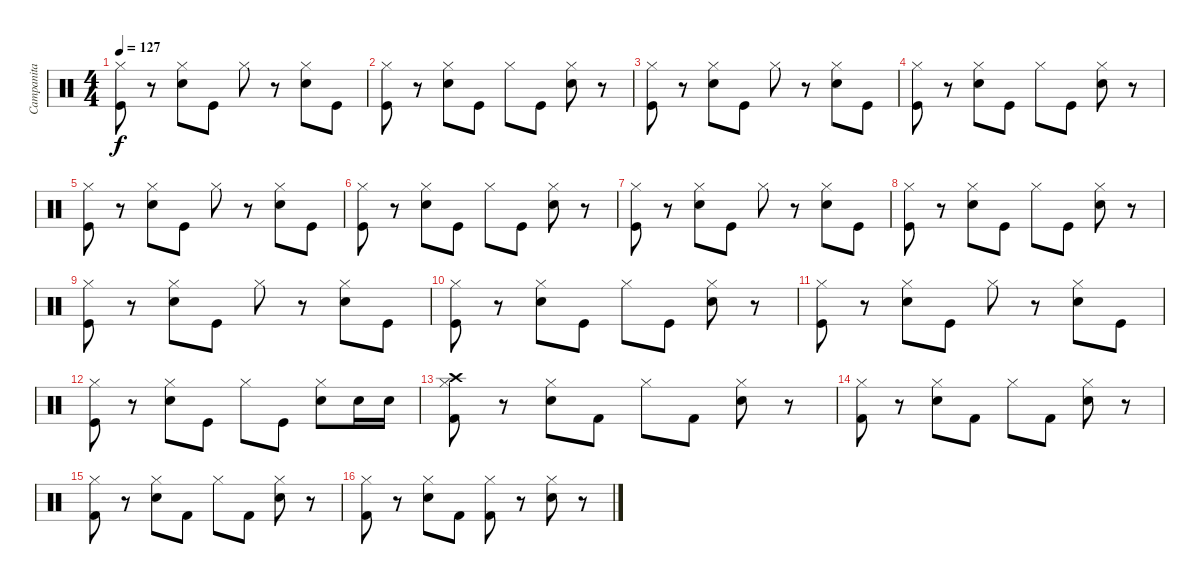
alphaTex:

\track ("Campanita" "Campanita") {instrument percussion}
\staff {score}
\articulation defaults
\ts (4 4)
\tempo 127
\clef neutral
\ks c
("Kick (hit)" "Hi-Hat (closed)").8{dy f} r.8 ("Electric Snare (hit)" "Hi-Hat (closed)").8 "Kick (hit)".8 "Hi-Hat (closed)".8 r.8 ("Electric Snare (hit)" "Hi-Hat (closed)").8 "Kick (hit)".8 |
("Kick (hit)" "Hi-Hat (closed)").8 r.8 ("Electric Snare (hit)" "Hi-Hat (closed)").8 "Kick (hit)".8 "Hi-Hat (closed)".8 "Kick (hit)".8 ("Electric Snare (hit)" "Hi-Hat (closed)").8 r.8 |
("Kick (hit)" "Hi-Hat (closed)").8 r.8 ("Electric Snare (hit)" "Hi-Hat (closed)").8 "Kick (hit)".8 "Hi-Hat (closed)".8 r.8 ("Electric Snare (hit)" "Hi-Hat (closed)").8 "Kick (hit)".8 |
("Kick (hit)" "Hi-Hat (closed)").8 r.8 ("Electric Snare (hit)" "Hi-Hat (closed)").8 "Kick (hit)".8 "Hi-Hat (closed)".8 "Kick (hit)".8 ("Electric Snare (hit)" "Hi-Hat (closed)").8 r.8 |
("Kick (hit)" "Hi-Hat (closed)").8 r.8 ("Electric Snare (hit)" "Hi-Hat (closed)").8 "Kick (hit)".8 "Hi-Hat (closed)".8 r.8 ("Electric Snare (hit)" "Hi-Hat (closed)").8 "Kick (hit)".8 |
("Kick (hit)" "Hi-Hat (closed)").8 r.8 ("Electric Snare (hit)" "Hi-Hat (closed)").8 "Kick (hit)".8 "Hi-Hat (closed)".8 "Kick (hit)".8 ("Electric Snare (hit)" "Hi-Hat (closed)").8 r.8 |
("Kick (hit)" "Hi-Hat (closed)").8 r.8 ("Electric Snare (hit)" "Hi-Hat (closed)").8 "Kick (hit)".8 "Hi-Hat (closed)".8 r.8 ("Electric Snare (hit)" "Hi-Hat (closed)").8 "Kick (hit)".8 |
("Kick (hit)" "Hi-Hat (closed)").8 r.8 ("Electric Snare (hit)" "Hi-Hat (closed)").8 "Kick (hit)".8 "Hi-Hat (closed)".8 "Kick (hit)".8 ("Electric Snare (hit)" "Hi-Hat (closed)").8 r.8 |
("Kick (hit)" "Hi-Hat (closed)").8 r.8 ("Electric Snare (hit)" "Hi-Hat (closed)").8 "Kick (hit)".8 "Hi-Hat (closed)".8 r.8 ("Electric Snare (hit)" "Hi-Hat (closed)").8 "Kick (hit)".8 |
("Kick (hit)" "Hi-Hat (closed)").8 r.8 ("Electric Snare (hit)" "Hi-Hat (closed)").8 "Kick (hit)".8 "Hi-Hat (closed)".8 "Kick (hit)".8 ("Electric Snare (hit)" "Hi-Hat (closed)").8 r.8 |
("Kick (hit)" "Hi-Hat (closed)").8 r.8 ("Electric Snare (hit)" "Hi-Hat (closed)").8 "Kick (hit)".8 "Hi-Hat (closed)".8 r.8 ("Electric Snare (hit)" "Hi-Hat (closed)").8 "Kick (hit)".8 |
("Kick (hit)" "Hi-Hat (closed)").8 r.8 ("Electric Snare (hit)" "Hi-Hat (closed)").8 "Kick (hit)".8 "Hi-Hat (closed)".8 "Kick (hit)".8 ("Electric Snare (hit)" "Hi-Hat (closed)").8 "Electric Snare (hit)".16 "Electric Snare (hit)".16 |
("Kick (hit) 2" "Hi-Hat (closed)" "Crash high (hit)").8 r.8 ("Electric Snare (hit)" "Hi-Hat (closed)").8 "Kick (hit) 2".8 "Hi-Hat (closed)".8 "Kick (hit) 2".8 ("Electric Snare (hit)" "Hi-Hat (closed)").8 r.8 |
("Kick (hit) 2" "Hi-Hat (closed)").8 r.8 ("Electric Snare (hit)" "Hi-Hat (closed)").8 "Kick (hit) 2".8 "Hi-Hat (closed)".8 "Kick (hit) 2".8 ("Electric Snare (hit)" "Hi-Hat (closed)").8 r.8 |
("Kick (hit) 2" "Hi-Hat (closed)").8 r.8 ("Electric Snare (hit)" "Hi-Hat (closed)").8 "Kick (hit) 2".8 "Hi-Hat (closed)".8 "Kick (hit) 2".8 ("Electric Snare (hit)" "Hi-Hat (closed)").8 r.8 |
("Kick (hit) 2" "Hi-Hat (closed)").8 r.8 ("Electric Snare (hit)" "Hi-Hat (closed)").8 "Kick (hit) 2".8 ("Kick (hit) 2" "Hi-Hat (closed)").8 r.8 ("Electric Snare (hit)" "Hi-Hat (closed)").8 r.8
